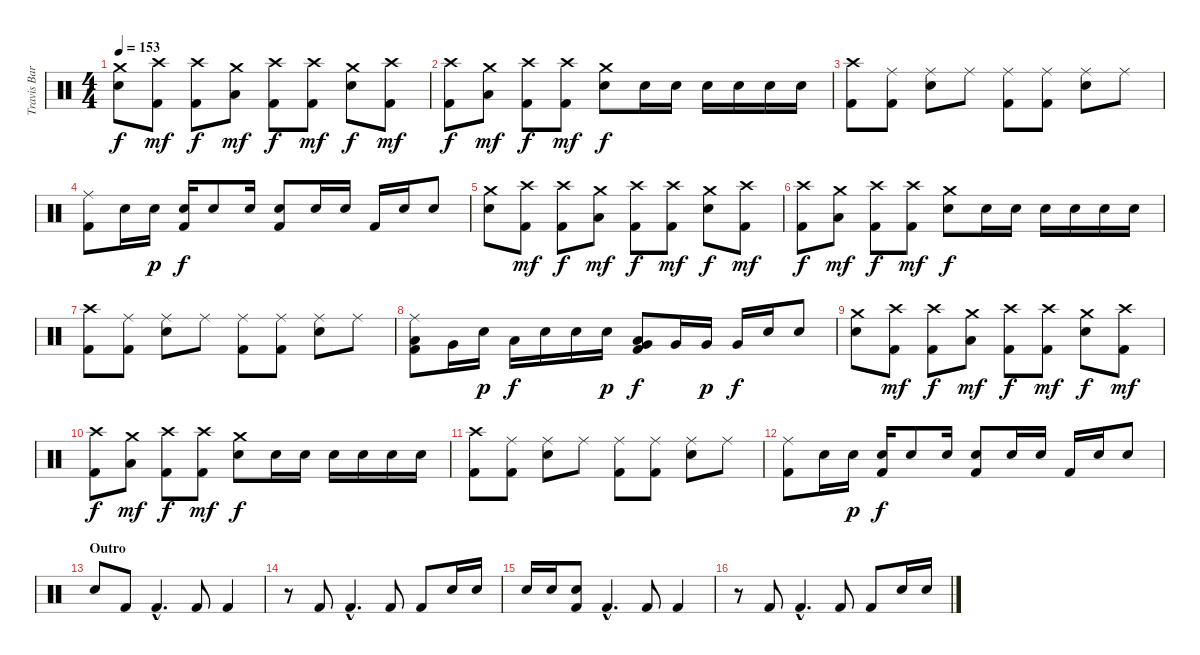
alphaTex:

\track ("Travis Barker" "Travis Bar") {instrument percussion}
\staff {score}
\articulation defaults
\ts (4 4)
\tempo 153
\clef neutral
\ks c
("Crash medium (hit)" "Electric Snare (hit)").8{dy f} ("Crash high (hit)" "Kick (hit) 2").8{dy mf} ("Crash high (hit)" "Kick (hit) 2").8{dy f} ("Crash medium (hit)" "Low Tom (hit)").8{dy mf} ("Crash high (hit)" "Kick (hit) 2").8{dy f} ("Crash high (hit)" "Kick (hit) 2").8{dy mf} ("Crash medium (hit)" "Electric Snare (hit)").8{dy f} ("Crash high (hit)" "Kick (hit) 2").8{dy mf} |
("Crash high (hit)" "Kick (hit) 2").8{dy f} ("Crash medium (hit)" "Low Tom (hit)").8{dy mf} ("Crash high (hit)" "Kick (hit) 2").8{dy f} ("Crash high (hit)" "Kick (hit) 2").8{dy mf} ("Crash medium (hit)" "Electric Snare (hit)").8{dy f} "Electric Snare (hit)".16 "Electric Snare (hit)".16 "Electric Snare (hit)".16 "Electric Snare (hit)".16 "Electric Snare (hit)".16 "Electric Snare (hit)".16 |
("Crash high (hit)" "Kick (hit) 2").8 ("Ride (middle)" "Kick (hit) 2").8 ("Ride (middle)" "Electric Snare (hit)").8 "Ride (middle)".8 ("Ride (middle)" "Kick (hit) 2").8 ("Ride (middle)" "Kick (hit) 2").8 ("Ride (middle)" "Electric Snare (hit)").8 "Ride (middle)".8 |
("Ride (middle)" "Kick (hit) 2").8 "Electric Snare (hit)".16 "Electric Snare (hit)".16{dy p} ("Electric Snare (hit)" "Kick (hit) 2").16{dy f} "Electric Snare (hit)".8 "Electric Snare (hit)".16 ("Electric Snare (hit)" "Kick (hit) 2").8 "Electric Snare (hit)".16 "Electric Snare (hit)".16 "Kick (hit) 2".16 "Electric Snare (hit)".16 "Electric Snare (hit)".8 |
("Crash medium (hit)" "Electric Snare (hit)").8 ("Crash high (hit)" "Kick (hit) 2").8{dy mf} ("Crash high (hit)" "Kick (hit) 2").8{dy f} ("Crash medium (hit)" "Low Tom (hit)").8{dy mf} ("Crash high (hit)" "Kick (hit) 2").8{dy f} ("Crash high (hit)" "Kick (hit) 2").8{dy mf} ("Crash medium (hit)" "Electric Snare (hit)").8{dy f} ("Crash high (hit)" "Kick (hit) 2").8{dy mf} |
("Crash high (hit)" "Kick (hit) 2").8{dy f} ("Crash medium (hit)" "Low Tom (hit)").8{dy mf} ("Crash high (hit)" "Kick (hit) 2").8{dy f} ("Crash high (hit)" "Kick (hit) 2").8{dy mf} ("Crash medium (hit)" "Electric Snare (hit)").8{dy f} "Electric Snare (hit)".16 "Electric Snare (hit)".16 "Electric Snare (hit)".16 "Electric Snare (hit)".16 "Electric Snare (hit)".16 "Electric Snare (hit)".16 |
("Crash high (hit)" "Kick (hit) 2").8 ("Ride (middle)" "Kick (hit) 2").8 ("Ride (middle)" "Electric Snare (hit)").8 "Ride (middle)".8 ("Ride (middle)" "Kick (hit) 2").8 ("Ride (middle)" "Kick (hit) 2").8 ("Ride (middle)" "Electric Snare (hit)").8 "Ride (middle)".8 |
("Ride (middle)" "Low Tom (hit)" "Kick (hit) 2").8 "Very Low Tom (hit)".16 "Electric Snare (hit)".16{dy p} "Low Tom (hit)".16{dy f} "Electric Snare (hit)".16 "Electric Snare (hit)".16 "Electric Snare (hit)".16{dy p} ("Low Tom (hit)" "Very Low Tom (hit)" "Kick (hit) 2").8{dy f} "Very Low Tom (hit)".16 "Very Low Tom (hit)".16{dy p} "Very Low Tom (hit)".16{dy f} "Electric Snare (hit)".16 "Electric Snare (hit)".8 |
("Crash medium (hit)" "Electric Snare (hit)").8 ("Crash high (hit)" "Kick (hit) 2").8{dy mf} ("Crash high (hit)" "Kick (hit) 2").8{dy f} ("Crash medium (hit)" "Low Tom (hit)").8{dy mf} ("Crash high (hit)" "Kick (hit) 2").8{dy f} ("Crash high (hit)" "Kick (hit) 2").8{dy mf} ("Crash medium (hit)" "Electric Snare (hit)").8{dy f} ("Crash high (hit)" "Kick (hit) 2").8{dy mf} |
("Crash high (hit)" "Kick (hit) 2").8{dy f} ("Crash medium (hit)" "Low Tom (hit)").8{dy mf} ("Crash high (hit)" "Kick (hit) 2").8{dy f} ("Crash high (hit)" "Kick (hit) 2").8{dy mf} ("Crash medium (hit)" "Electric Snare (hit)").8{dy f} "Electric Snare (hit)".16 "Electric Snare (hit)".16 "Electric Snare (hit)".16 "Electric Snare (hit)".16 "Electric Snare (hit)".16 "Electric Snare (hit)".16 |
("Crash high (hit)" "Kick (hit) 2").8 ("Ride (middle)" "Kick (hit) 2").8 ("Ride (middle)" "Electric Snare (hit)").8 "Ride (middle)".8 ("Ride (middle)" "Kick (hit) 2").8 ("Ride (middle)" "Kick (hit) 2").8 ("Ride (middle)" "Electric Snare (hit)").8 "Ride (middle)".8 |
("Ride (middle)" "Kick (hit) 2").8 "Electric Snare (hit)".16 "Electric Snare (hit)".16{dy p} ("Electric Snare (hit)" "Kick (hit) 2").16{dy f} "Electric Snare (hit)".8 "Electric Snare (hit)".16 ("Electric Snare (hit)" "Kick (hit) 2").8 "Electric Snare (hit)".16 "Electric Snare (hit)".16 "Kick (hit) 2".16 "Electric Snare (hit)".16 "Electric Snare (hit)".8 |
\section ("" "Outro")
"Electric Snare (hit)".8 "Kick (hit) 2".8 "Kick (hit) 2"{hac}.4{d} "Kick (hit) 2".8 "Kick (hit) 2".4 |
r.8 "Kick (hit) 2".8 "Kick (hit) 2"{hac}.4{d} "Kick (hit) 2".8 "Kick (hit) 2".8 "Electric Snare (hit)".16 "Electric Snare (hit)".16 |
"Electric Snare (hit)".16 "Electric Snare (hit)".16 ("Electric Snare (hit)" "Kick (hit) 2").8 "Kick (hit) 2"{hac}.4{d} "Kick (hit) 2".8 "Kick (hit) 2".4 |
r.8 "Kick (hit) 2".8 "Kick (hit) 2"{hac}.4{d} "Kick (hit) 2".8 "Kick (hit) 2".8 "Electric Snare (hit)".16 "Electric Snare (hit)".16
